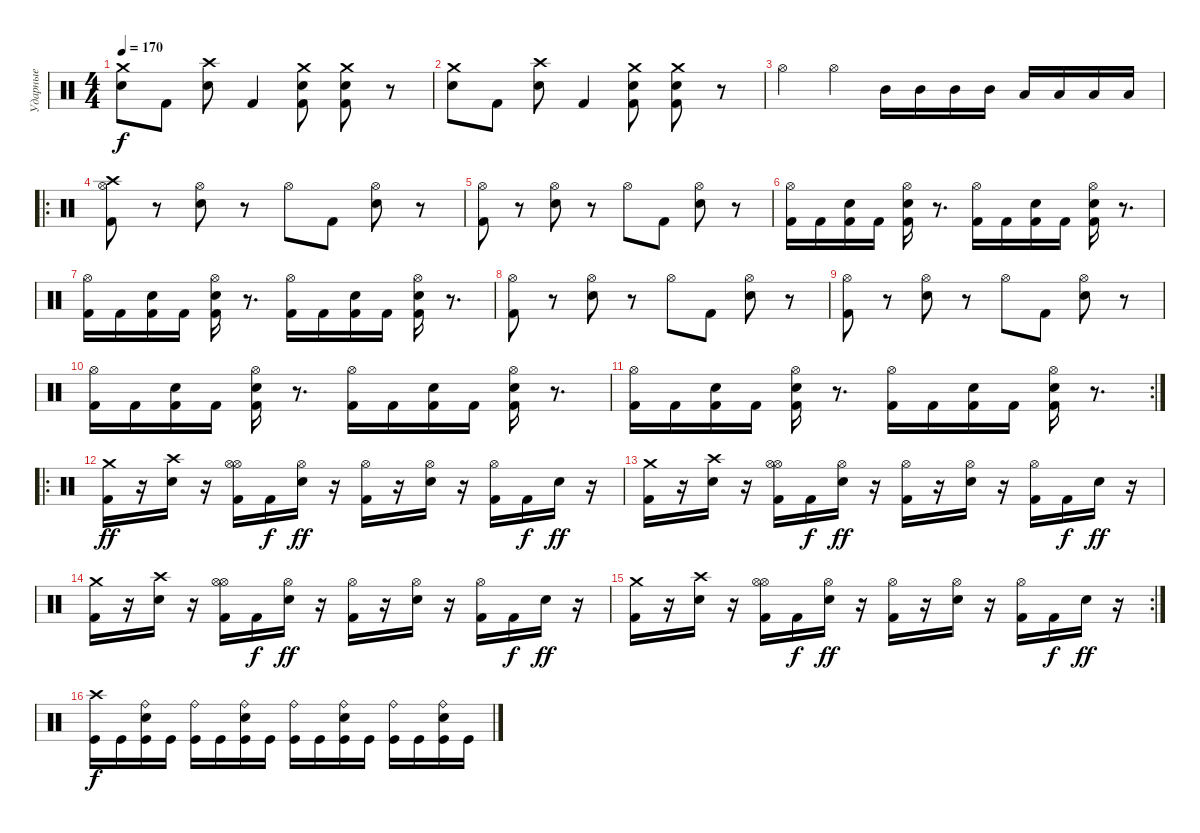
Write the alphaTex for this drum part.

\track ("Ударные" "Ударные") {instrument percussion}
\staff {score}
\articulation defaults
\ts (4 4)
\tempo 170
\clef neutral
\ks c
("Crash medium (hit)" "Snare (hit) 2").8{dy f} "Kick (hit) 2".8 ("Crash high (hit)" "Snare (hit) 2").8 "Kick (hit) 2".4 ("Crash medium (hit)" "Kick (hit) 2" "Snare (hit) 2").8 ("Crash medium (hit)" "Kick (hit) 2" "Snare (hit) 2").8 r.8 |
("Crash medium (hit)" "Snare (hit) 2").8 "Kick (hit) 2".8 ("Crash high (hit)" "Snare (hit) 2").8 "Kick (hit) 2".4 ("Crash medium (hit)" "Kick (hit) 2" "Snare (hit) 2").8 ("Crash medium (hit)" "Kick (hit) 2" "Snare (hit) 2").8 r.8 |
"Hi-Hat (open)".4 "Hi-Hat (open)".4 "Mid Tom (hit)".16 "Mid Tom (hit)".16 "Mid Tom (hit)".16 "Mid Tom (hit)".16 "Low Tom (hit)".16 "Low Tom (hit)".16 "Low Tom (hit)".16 "Low Tom (hit)".16 |
\ro
("Crash high (hit)" "Hi-Hat (open)" "Kick (hit) 2").8 r.8 ("Hi-Hat (open)" "Snare (hit) 2").8 r.8 "Hi-Hat (open)".8 "Kick (hit) 2".8 ("Hi-Hat (open)" "Snare (hit) 2").8 r.8 |
("Hi-Hat (open)" "Kick (hit) 2").8 r.8 ("Hi-Hat (open)" "Snare (hit) 2").8 r.8 "Hi-Hat (open)".8 "Kick (hit) 2".8 ("Hi-Hat (open)" "Snare (hit) 2").8 r.8 |
("Hi-Hat (open)" "Kick (hit) 2").16 "Kick (hit) 2".16 ("Snare (hit)" "Kick (hit) 2").16 "Kick (hit) 2".16 ("Hi-Hat (open)" "Snare (hit) 2" "Kick (hit) 2").16 r.8{d} ("Hi-Hat (open)" "Kick (hit) 2").16 "Kick (hit) 2".16 ("Snare (hit)" "Kick (hit) 2").16 "Kick (hit) 2".16 ("Hi-Hat (open)" "Snare (hit) 2" "Kick (hit) 2").16 r.8{d} |
("Hi-Hat (open)" "Kick (hit) 2").16 "Kick (hit) 2".16 ("Snare (hit)" "Kick (hit) 2").16 "Kick (hit) 2".16 ("Hi-Hat (open)" "Snare (hit) 2" "Kick (hit) 2").16 r.8{d} ("Hi-Hat (open)" "Kick (hit) 2").16 "Kick (hit) 2".16 ("Snare (hit)" "Kick (hit) 2").16 "Kick (hit) 2".16 ("Hi-Hat (open)" "Snare (hit) 2" "Kick (hit) 2").16 r.8{d} |
("Hi-Hat (open)" "Kick (hit) 2").8 r.8 ("Hi-Hat (open)" "Snare (hit) 2").8 r.8 "Hi-Hat (open)".8 "Kick (hit) 2".8 ("Hi-Hat (open)" "Snare (hit) 2").8 r.8 |
("Hi-Hat (open)" "Kick (hit) 2").8 r.8 ("Hi-Hat (open)" "Snare (hit) 2").8 r.8 "Hi-Hat (open)".8 "Kick (hit) 2".8 ("Hi-Hat (open)" "Snare (hit) 2").8 r.8 |
("Hi-Hat (open)" "Kick (hit) 2").16 "Kick (hit) 2".16 ("Snare (hit)" "Kick (hit) 2").16 "Kick (hit) 2".16 ("Hi-Hat (open)" "Snare (hit) 2" "Kick (hit) 2").16 r.8{d} ("Hi-Hat (open)" "Kick (hit) 2").16 "Kick (hit) 2".16 ("Snare (hit)" "Kick (hit) 2").16 "Kick (hit) 2".16 ("Hi-Hat (open)" "Snare (hit) 2" "Kick (hit) 2").16 r.8{d} |
\rc 2
("Hi-Hat (open)" "Kick (hit) 2").16 "Kick (hit) 2".16 ("Snare (hit)" "Kick (hit) 2").16 "Kick (hit) 2".16 ("Hi-Hat (open)" "Snare (hit) 2" "Kick (hit) 2").16 r.8{d} ("Hi-Hat (open)" "Kick (hit) 2").16 "Kick (hit) 2".16 ("Snare (hit)" "Kick (hit) 2").16 "Kick (hit) 2".16 ("Hi-Hat (open)" "Snare (hit) 2" "Kick (hit) 2").16 r.8{d} |
\ro
("Kick (hit) 2" "Crash medium (hit)").16{dy ff} r.16 ("Electric Snare (hit)" "Crash high (hit)").16 r.16 ("Kick (hit) 2" "Hi-Hat (open)" "Hi-Hat (open)").16 "Kick (hit) 2".16{dy f} ("Electric Snare (hit)" "Hi-Hat (open)").16{dy ff} r.16 ("Kick (hit) 2" "Hi-Hat (open)").16 r.16 ("Electric Snare (hit)" "Hi-Hat (open)").16 r.16 ("Kick (hit) 2" "Hi-Hat (open)").16 "Kick (hit) 2".16{dy f} "Electric Snare (hit)".16{dy ff} r.16 |
("Kick (hit) 2" "Crash medium (hit)").16 r.16 ("Electric Snare (hit)" "Crash high (hit)").16 r.16 ("Kick (hit) 2" "Hi-Hat (open)" "Hi-Hat (open)").16 "Kick (hit) 2".16{dy f} ("Electric Snare (hit)" "Hi-Hat (open)").16{dy ff} r.16 ("Kick (hit) 2" "Hi-Hat (open)").16 r.16 ("Electric Snare (hit)" "Hi-Hat (open)").16 r.16 ("Kick (hit) 2" "Hi-Hat (open)").16 "Kick (hit) 2".16{dy f} "Electric Snare (hit)".16{dy ff} r.16 |
("Kick (hit) 2" "Crash medium (hit)").16 r.16 ("Electric Snare (hit)" "Crash high (hit)").16 r.16 ("Kick (hit) 2" "Hi-Hat (open)" "Hi-Hat (open)").16 "Kick (hit) 2".16{dy f} ("Electric Snare (hit)" "Hi-Hat (open)").16{dy ff} r.16 ("Kick (hit) 2" "Hi-Hat (open)").16 r.16 ("Electric Snare (hit)" "Hi-Hat (open)").16 r.16 ("Kick (hit) 2" "Hi-Hat (open)").16 "Kick (hit) 2".16{dy f} "Electric Snare (hit)".16{dy ff} r.16 |
\rc 2
("Kick (hit) 2" "Crash medium (hit)").16 r.16 ("Electric Snare (hit)" "Crash high (hit)").16 r.16 ("Kick (hit) 2" "Hi-Hat (open)" "Hi-Hat (open)").16 "Kick (hit) 2".16{dy f} ("Electric Snare (hit)" "Hi-Hat (open)").16{dy ff} r.16 ("Kick (hit) 2" "Hi-Hat (open)").16 r.16 ("Electric Snare (hit)" "Hi-Hat (open)").16 r.16 ("Kick (hit) 2" "Hi-Hat (open)").16 "Kick (hit) 2".16{dy f} "Electric Snare (hit)".16{dy ff} r.16 |
("Crash high (hit)" "Kick (hit)").16{dy f} "Kick (hit)".16 ("Ride (bell)" "Snare (hit) 2" "Kick (hit)").16 "Kick (hit)".16 ("Ride (bell)" "Kick (hit)").16 "Kick (hit)".16 ("Ride (bell)" "Snare (hit) 2" "Kick (hit)").16 "Kick (hit)".16 ("Ride (bell)" "Kick (hit)").16 "Kick (hit)".16 ("Ride (bell)" "Snare (hit) 2" "Kick (hit)").16 "Kick (hit)".16 ("Ride (bell)" "Kick (hit)").16 "Kick (hit)".16 ("Ride (bell)" "Snare (hit) 2" "Kick (hit)").16 "Kick (hit)".16
